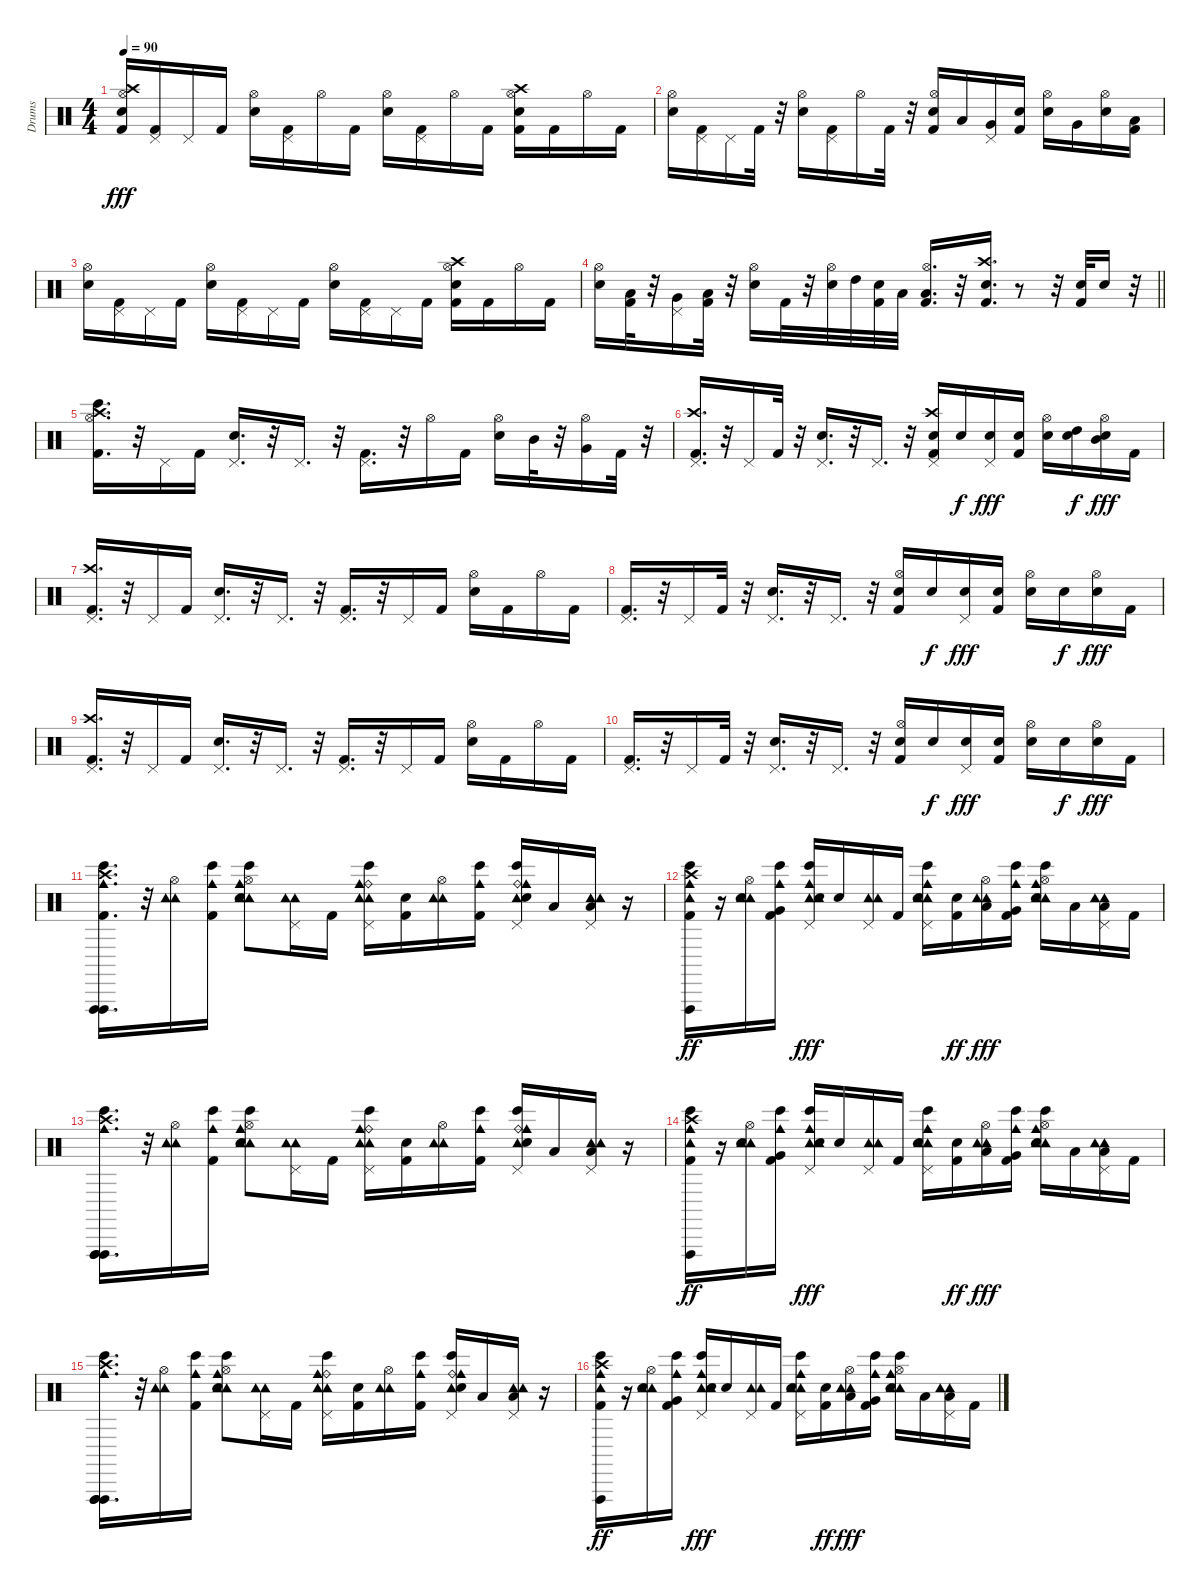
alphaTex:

\track ("Drums" "Drums") {instrument percussion}
\staff {score}
\articulation defaults
\ts (4 4)
\tempo 90
\clef neutral
\ks c
("Kick (hit) 2" "Crash high (hit)" "Hi-Hat (open)" "Electric Snare (hit)").16{dy fff} ("Pedal Hi-Hat (hit)" "Kick (hit) 2").16 "Pedal Hi-Hat (hit)".16 "Kick (hit) 2".16 ("Electric Snare (hit)" "Hi-Hat (open)").16 ("Pedal Hi-Hat (hit)" "Kick (hit) 2").16 "Hi-Hat (open)".16 "Kick (hit) 2".16 ("Electric Snare (hit)" "Hi-Hat (open)").16 ("Pedal Hi-Hat (hit)" "Kick (hit) 2").16 "Hi-Hat (open)".16 "Kick (hit) 2".16 ("Kick (hit) 2" "Crash high (hit)" "Hi-Hat (open)" "Electric Snare (hit)").16 "Kick (hit) 2".16 "Hi-Hat (open)".16 "Kick (hit) 2".16 |
("Hi-Hat (open)" "Electric Snare (hit)").16 ("Pedal Hi-Hat (hit)" "Kick (hit) 2").16 "Pedal Hi-Hat (hit)".16 "Kick (hit) 2".32 r.32 ("Hi-Hat (open)" "Electric Snare (hit)").16 ("Pedal Hi-Hat (hit)" "Kick (hit) 2").16 "Hi-Hat (open)".16 "Kick (hit) 2".32 r.32 ("Hi-Hat (open)" "Kick (hit) 2" "Electric Snare (hit)").16 "Low Tom (hit)".16 ("Pedal Hi-Hat (hit)" "Very Low Tom (hit)").16 ("Electric Snare (hit)" "Kick (hit) 2").16 ("Hi-Hat (open)" "Electric Snare (hit)").16 "Very Low Tom (hit)".16 ("Hi-Hat (open)" "Electric Snare (hit)").16 ("Low Floor Tom (hit)" "Kick (hit) 2").16 |
("Hi-Hat (open)" "Electric Snare (hit)").16 ("Pedal Hi-Hat (hit)" "Kick (hit) 2").16 "Pedal Hi-Hat (hit)".16 "Kick (hit) 2".16 ("Electric Snare (hit)" "Hi-Hat (open)").16 ("Pedal Hi-Hat (hit)" "Kick (hit) 2").16 "Pedal Hi-Hat (hit)".16 "Kick (hit) 2".16 ("Electric Snare (hit)" "Hi-Hat (open)").16 ("Pedal Hi-Hat (hit)" "Kick (hit) 2").16 "Pedal Hi-Hat (hit)".16 "Kick (hit) 2".16 ("Kick (hit) 2" "Crash high (hit)" "Hi-Hat (open)" "Electric Snare (hit)").16 "Kick (hit) 2".16 "Hi-Hat (open)".16 "Kick (hit) 2".16 |
\barLineRight lightlight
("Hi-Hat (open)" "Electric Snare (hit)").16 ("Kick (hit) 2" "Low Tom (hit)").32 r.32 ("Very Low Tom (hit)" "Pedal Hi-Hat (hit)").16 ("Kick (hit) 2" "Low Floor Tom (hit)").32 r.32 ("Hi-Hat (open)" "Electric Snare (hit)").16 "Kick (hit) 2".32 r.32 ("Electric Snare (hit)" "Hi-Hat (open)").32 "High Tom (hit)".32 ("Electric Snare (hit)" "Kick (hit) 2").32 "Low Tom (hit)".32 ("Hi-Hat (open)" "Low Floor Tom (hit)" "Kick (hit) 2").16{d} r.32 ("Crash high (hit)" "Kick (hit) 2" "Electric Snare (hit)").16{d} r.8 r.32 ("Kick (hit) 2" "Electric Snare (hit)").32 "Electric Snare (hit)".16 r.32 |
("Bongo High (hit)" "Crash high (hit)" "Kick (hit) 2" "Hi-Hat (open)").16{d} r.32 "Pedal Hi-Hat (hit)".16 "Kick (hit) 2".16 ("Electric Snare (hit)" "Pedal Hi-Hat (hit)").16{d} r.32 "Pedal Hi-Hat (hit)".16{d} r.32 ("Kick (hit) 2" "Pedal Hi-Hat (hit)").16{d} r.32 "Hi-Hat (open)".16 "Kick (hit) 2".16 ("Electric Snare (hit)" "Hi-Hat (open)").16 "Mid Tom (hit)".32 r.32 ("Hi-Hat (open)" "Very Low Tom (hit)").16 "Kick (hit) 2".32 r.32 |
("Crash high (hit)" "Kick (hit) 2" "Pedal Hi-Hat (hit)").16{d} r.32 "Pedal Hi-Hat (hit)".16 "Kick (hit) 2".32 r.32 ("Electric Snare (hit)" "Pedal Hi-Hat (hit)").16{d} r.32 "Pedal Hi-Hat (hit)".16{d} r.32 ("Electric Snare (hit)" "Crash high (hit)" "Kick (hit) 2" "Pedal Hi-Hat (hit)").16 "Electric Snare (hit)".16{dy f} ("Electric Snare (hit)" "Pedal Hi-Hat (hit)").16{dy fff} ("Electric Snare (hit)" "Kick (hit) 2").16 ("Electric Snare (hit)" "Hi-Hat (open)").16 ("High Tom (hit)" "Electric Snare (hit)").16{dy f} ("Mid Tom (hit)" "Electric Snare (hit)" "Hi-Hat (open)").16{dy fff} "Kick (hit) 2".16 |
("Crash high (hit)" "Kick (hit) 2" "Pedal Hi-Hat (hit)").16{d} r.32 "Pedal Hi-Hat (hit)".16 "Kick (hit) 2".16 ("Electric Snare (hit)" "Pedal Hi-Hat (hit)").16{d} r.32 "Pedal Hi-Hat (hit)".16{d} r.32 ("Pedal Hi-Hat (hit)" "Kick (hit) 2").16{d} r.32 "Pedal Hi-Hat (hit)".16 "Kick (hit) 2".16 ("Hi-Hat (open)" "Electric Snare (hit)").16 "Kick (hit) 2".16 "Hi-Hat (open)".16 "Kick (hit) 2".16 |
("Pedal Hi-Hat (hit)" "Kick (hit) 2").16{d} r.32 "Pedal Hi-Hat (hit)".16 "Kick (hit) 2".32 r.32 ("Pedal Hi-Hat (hit)" "Electric Snare (hit)").16{d} r.32 "Pedal Hi-Hat (hit)".16{d} r.32 ("Hi-Hat (open)" "Electric Snare (hit)" "Kick (hit) 2").16 "Electric Snare (hit)".16{dy f} ("Pedal Hi-Hat (hit)" "Electric Snare (hit)").16{dy fff} ("Electric Snare (hit)" "Kick (hit) 2").16 ("Hi-Hat (open)" "Electric Snare (hit)").16 "Electric Snare (hit)".16{dy f} ("Hi-Hat (open)" "Electric Snare (hit)").16{dy fff} "Kick (hit) 2".16 |
("Crash high (hit)" "Kick (hit) 2" "Pedal Hi-Hat (hit)").16{d} r.32 "Pedal Hi-Hat (hit)".16 "Kick (hit) 2".16 ("Electric Snare (hit)" "Pedal Hi-Hat (hit)").16{d} r.32 "Pedal Hi-Hat (hit)".16{d} r.32 ("Pedal Hi-Hat (hit)" "Kick (hit) 2").16{d} r.32 "Pedal Hi-Hat (hit)".16 "Kick (hit) 2".16 ("Hi-Hat (open)" "Electric Snare (hit)").16 "Kick (hit) 2".16 "Hi-Hat (open)".16 "Kick (hit) 2".16 |
("Pedal Hi-Hat (hit)" "Kick (hit) 2").16{d} r.32 "Pedal Hi-Hat (hit)".16 "Kick (hit) 2".32 r.32 ("Pedal Hi-Hat (hit)" "Electric Snare (hit)").16{d} r.32 "Pedal Hi-Hat (hit)".16{d} r.32 ("Hi-Hat (open)" "Electric Snare (hit)" "Kick (hit) 2").16 "Electric Snare (hit)".16{dy f} ("Pedal Hi-Hat (hit)" "Electric Snare (hit)").16{dy fff} ("Electric Snare (hit)" "Kick (hit) 2").16 ("Hi-Hat (open)" "Electric Snare (hit)").16 "Electric Snare (hit)".16{dy f} ("Hi-Hat (open)" "Electric Snare (hit)").16{dy fff} "Kick (hit) 2".16 |
("Vibraslap (hit)" "Vibraslap (hit)" "Cowbell medium (hit)" "Bongo High (hit)" "Crash high (hit)" "Kick (hit) 2").16{d volume 13 balance 9} r.32 ("Tambourine (hit)" "Hi-Hat (open)" "Tambourine (hit)").16 ("Kick (hit) 2" "Bongo High (hit)" "Cowbell medium (hit)").16 ("Tambourine (hit)" "Hi-Hat (open)" "Cowbell medium (hit)" "Electric Snare (hit)" "Bongo High (hit)" "Tambourine (hit)").8 ("Tambourine (hit)" "Pedal Hi-Hat (hit)" "Tambourine (hit)").16 "Kick (hit) 2".16 ("Tambourine (hit)" "Pedal Hi-Hat (hit)" "Ride (bell)" "Cowbell medium (hit)" "Bongo High (hit)" "Tambourine (hit)").16 ("Kick (hit) 2" "Electric Snare (hit)").16 ("Tambourine (hit)" "Tambourine (hit)" "Hi-Hat (open)").16 ("Cowbell medium (hit)" "Kick (hit) 2" "Bongo High (hit)").16 ("Tambourine (hit)" "Pedal Hi-Hat (hit)" "Ride (bell)" "Cowbell medium (hit)" "Electric Snare (hit)" "Bongo High (hit)").16 "Low Tom (hit)".16 ("Tambourine (hit)" "Pedal Hi-Hat (hit)" "Tambourine (hit)" "Low Floor Tom (hit)").16 r.16 |
("Tambourine (hit)" "Vibraslap (hit)" "Cowbell medium (hit)" "Bongo High (hit)" "Kick (hit) 2" "Crash high (hit)").16{dy ff} r.16 ("Tambourine (hit)" "Hi-Hat (open)" "Tambourine (hit)" "Electric Snare (hit)").16 ("Kick (hit) 2" "Bongo High (hit)" "Cowbell medium (hit)" "Very Low Tom (hit)").16 ("Tambourine (hit)" "Pedal Hi-Hat (hit)" "Cowbell medium (hit)" "Electric Snare (hit)" "Bongo High (hit)" "Tambourine (hit)").16{dy fff} "Electric Snare (hit)".16 ("Tambourine (hit)" "Pedal Hi-Hat (hit)" "Tambourine (hit)").16 "Kick (hit) 2".16 ("Tambourine (hit)" "Pedal Hi-Hat (hit)" "Cowbell medium (hit)" "Bongo High (hit)" "Tambourine (hit)" "Electric Snare (hit)").16 ("Kick (hit) 2" "Electric Snare (hit)").16{dy ff} ("Tambourine (hit)" "Low Tom (hit)" "Tambourine (hit)" "Hi-Hat (open)").16{dy fff} ("Cowbell medium (hit)" "Kick (hit) 2" "Bongo High (hit)" "Very Low Tom (hit)").16 ("Tambourine (hit)" "Hi-Hat (open)" "Cowbell medium (hit)" "Electric Snare (hit)" "Bongo High (hit)" "Tambourine (hit)").16 "Low Tom (hit)".16 ("Tambourine (hit)" "Pedal Hi-Hat (hit)" "Tambourine (hit)" "Low Floor Tom (hit)").16 "Kick (hit) 2".16 |
("Vibraslap (hit)" "Vibraslap (hit)" "Vibraslap (hit)" "Cowbell medium (hit)" "Bongo High (hit)" "Crash high (hit)").16{d} r.32 ("Tambourine (hit)" "Hi-Hat (open)" "Tambourine (hit)").16 ("Kick (hit) 2" "Bongo High (hit)" "Cowbell medium (hit)").16 ("Tambourine (hit)" "Hi-Hat (open)" "Cowbell medium (hit)" "Electric Snare (hit)" "Bongo High (hit)" "Tambourine (hit)").8 ("Tambourine (hit)" "Pedal Hi-Hat (hit)" "Tambourine (hit)").16 "Kick (hit) 2".16 ("Tambourine (hit)" "Pedal Hi-Hat (hit)" "Ride (bell)" "Cowbell medium (hit)" "Bongo High (hit)" "Tambourine (hit)").16 ("Kick (hit) 2" "Electric Snare (hit)").16 ("Tambourine (hit)" "Tambourine (hit)" "Hi-Hat (open)").16 ("Cowbell medium (hit)" "Kick (hit) 2" "Bongo High (hit)").16 ("Tambourine (hit)" "Pedal Hi-Hat (hit)" "Ride (bell)" "Cowbell medium (hit)" "Electric Snare (hit)" "Bongo High (hit)").16 "Low Tom (hit)".16 ("Tambourine (hit)" "Pedal Hi-Hat (hit)" "Tambourine (hit)" "Low Floor Tom (hit)").16 r.16 |
("Tambourine (hit)" "Vibraslap (hit)" "Cowbell medium (hit)" "Bongo High (hit)" "Kick (hit) 2" "Crash high (hit)").16{dy ff} r.16 ("Tambourine (hit)" "Hi-Hat (open)" "Tambourine (hit)" "Electric Snare (hit)").16 ("Kick (hit) 2" "Bongo High (hit)" "Cowbell medium (hit)" "Very Low Tom (hit)").16 ("Tambourine (hit)" "Pedal Hi-Hat (hit)" "Cowbell medium (hit)" "Electric Snare (hit)" "Bongo High (hit)" "Tambourine (hit)").16{dy fff} "Electric Snare (hit)".16 ("Tambourine (hit)" "Pedal Hi-Hat (hit)" "Tambourine (hit)").16 "Kick (hit) 2".16 ("Tambourine (hit)" "Pedal Hi-Hat (hit)" "Cowbell medium (hit)" "Bongo High (hit)" "Tambourine (hit)" "Electric Snare (hit)").16 ("Kick (hit) 2" "Electric Snare (hit)").16{dy ff} ("Tambourine (hit)" "Low Tom (hit)" "Tambourine (hit)" "Hi-Hat (open)").16{dy fff} ("Cowbell medium (hit)" "Kick (hit) 2" "Bongo High (hit)" "Very Low Tom (hit)").16 ("Tambourine (hit)" "Hi-Hat (open)" "Cowbell medium (hit)" "Electric Snare (hit)" "Bongo High (hit)" "Tambourine (hit)").16 "Low Tom (hit)".16 ("Tambourine (hit)" "Pedal Hi-Hat (hit)" "Tambourine (hit)" "Low Floor Tom (hit)").16 "Kick (hit) 2".16 |
("Vibraslap (hit)" "Vibraslap (hit)" "Vibraslap (hit)" "Cowbell medium (hit)" "Bongo High (hit)" "Crash high (hit)").16{d} r.32 ("Tambourine (hit)" "Hi-Hat (open)" "Tambourine (hit)").16 ("Kick (hit) 2" "Bongo High (hit)" "Cowbell medium (hit)").16 ("Tambourine (hit)" "Hi-Hat (open)" "Cowbell medium (hit)" "Electric Snare (hit)" "Bongo High (hit)" "Tambourine (hit)").8 ("Tambourine (hit)" "Pedal Hi-Hat (hit)" "Tambourine (hit)").16 "Kick (hit) 2".16 ("Tambourine (hit)" "Pedal Hi-Hat (hit)" "Ride (bell)" "Cowbell medium (hit)" "Bongo High (hit)" "Tambourine (hit)").16 ("Kick (hit) 2" "Electric Snare (hit)").16 ("Tambourine (hit)" "Tambourine (hit)" "Hi-Hat (open)").16 ("Cowbell medium (hit)" "Kick (hit) 2" "Bongo High (hit)").16 ("Tambourine (hit)" "Pedal Hi-Hat (hit)" "Ride (bell)" "Cowbell medium (hit)" "Electric Snare (hit)" "Bongo High (hit)").16 "Low Tom (hit)".16 ("Tambourine (hit)" "Pedal Hi-Hat (hit)" "Tambourine (hit)" "Low Floor Tom (hit)").16 r.16 |
("Tambourine (hit)" "Vibraslap (hit)" "Cowbell medium (hit)" "Bongo High (hit)" "Kick (hit) 2" "Crash high (hit)").16{dy ff} r.16 ("Tambourine (hit)" "Hi-Hat (open)" "Tambourine (hit)" "Electric Snare (hit)").16 ("Kick (hit) 2" "Bongo High (hit)" "Cowbell medium (hit)" "Very Low Tom (hit)").16 ("Tambourine (hit)" "Pedal Hi-Hat (hit)" "Cowbell medium (hit)" "Electric Snare (hit)" "Bongo High (hit)" "Tambourine (hit)").16{dy fff} "Electric Snare (hit)".16 ("Tambourine (hit)" "Pedal Hi-Hat (hit)" "Tambourine (hit)").16 "Kick (hit) 2".16 ("Tambourine (hit)" "Pedal Hi-Hat (hit)" "Cowbell medium (hit)" "Bongo High (hit)" "Tambourine (hit)" "Electric Snare (hit)").16 ("Kick (hit) 2" "Electric Snare (hit)").16{dy ff} ("Tambourine (hit)" "Low Tom (hit)" "Tambourine (hit)" "Hi-Hat (open)").16{dy fff} ("Cowbell medium (hit)" "Kick (hit) 2" "Bongo High (hit)" "Very Low Tom (hit)").16 ("Tambourine (hit)" "Hi-Hat (open)" "Cowbell medium (hit)" "Electric Snare (hit)" "Bongo High (hit)" "Tambourine (hit)").16 "Low Tom (hit)".16 ("Tambourine (hit)" "Pedal Hi-Hat (hit)" "Tambourine (hit)" "Low Floor Tom (hit)").16 "Kick (hit) 2".16
